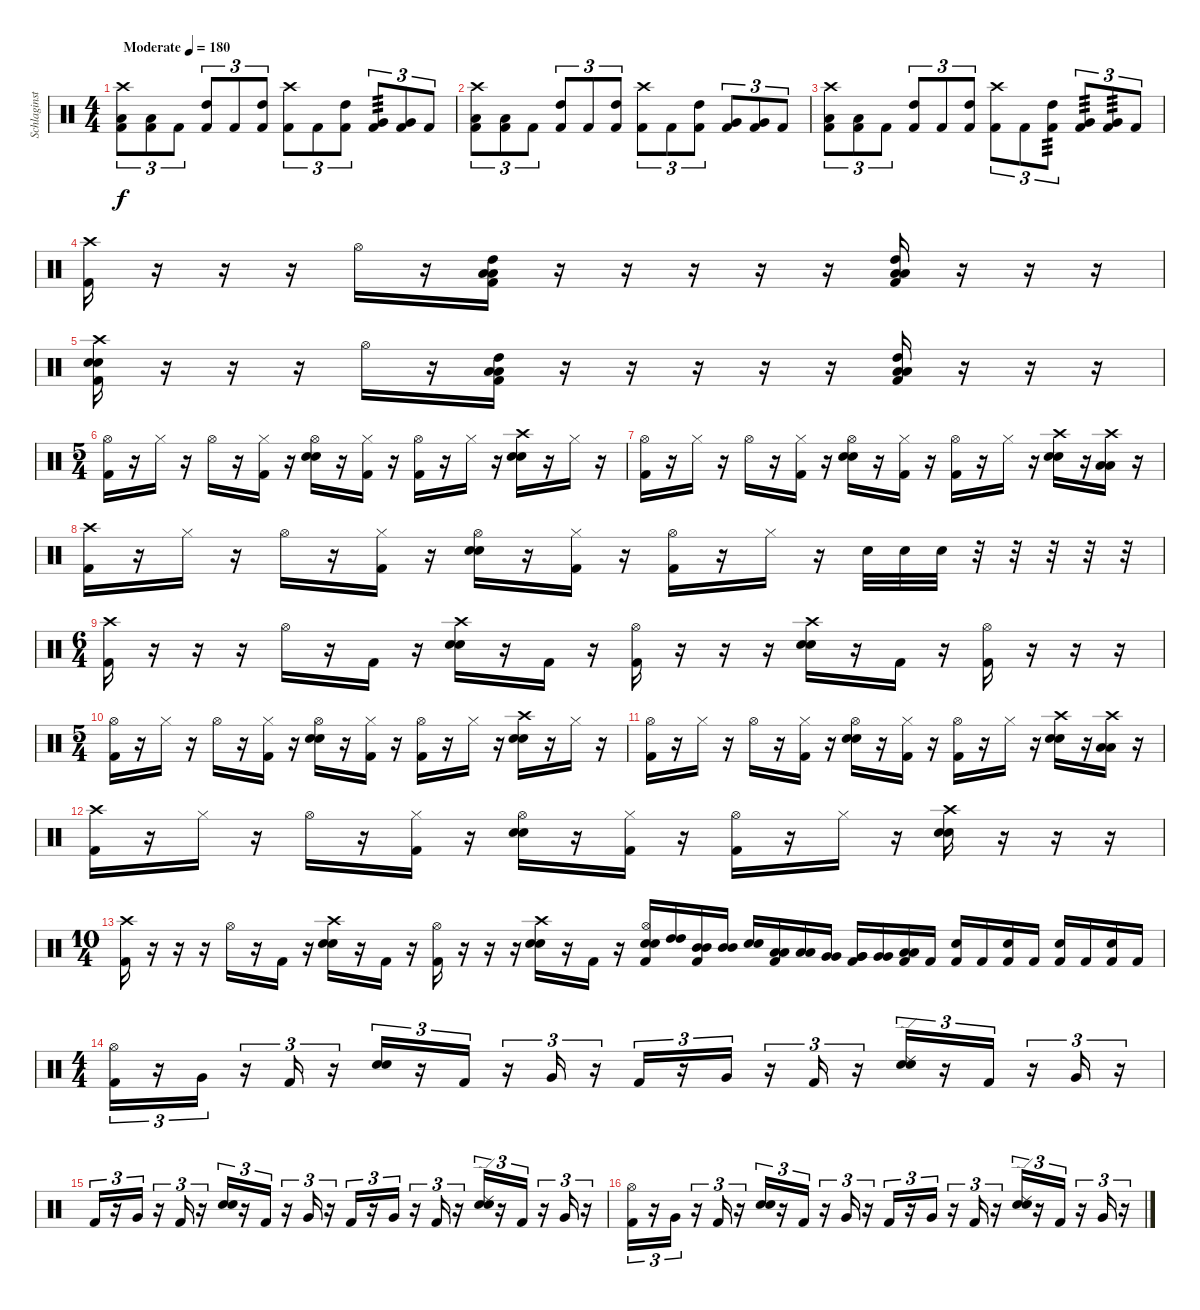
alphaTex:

\track ("Schlaginstrumente - Auswahl" "Schlaginst") {instrument percussion}
\staff {score}
\articulation defaults
\ts (4 4)
\tempo (180 "Moderate")
\clef neutral
\ks c
("Crash high (hit)" "Low Tom (hit)" "Kick (hit) 2").8{tu (3 2) dy f} ("Low Tom (hit)" "Kick (hit) 2").8{tu (3 2)} "Kick (hit) 2".8{tu (3 2)} ("High Tom (hit)" "Kick (hit) 2").8{tu (3 2)} "Kick (hit) 2".8{tu (3 2)} ("High Tom (hit)" "Kick (hit) 2").8{tu (3 2)} ("Crash high (hit)" "Kick (hit) 2").8{tu (3 2)} "Kick (hit) 2".8{tu (3 2)} ("High Tom (hit)" "Kick (hit) 2").8{tu (3 2)} ("Very Low Tom (hit)" "Kick (hit) 2").8{tu (3 2) tp 3} ("Very Low Tom (hit)" "Kick (hit) 2").8{tu (3 2)} "Kick (hit) 2".8{tu (3 2)} |
("Crash high (hit)" "Low Tom (hit)" "Kick (hit) 2").8{tu (3 2)} ("Low Tom (hit)" "Kick (hit) 2").8{tu (3 2)} "Kick (hit) 2".8{tu (3 2)} ("High Tom (hit)" "Kick (hit) 2").8{tu (3 2)} "Kick (hit) 2".8{tu (3 2)} ("High Tom (hit)" "Kick (hit) 2").8{tu (3 2)} ("Crash high (hit)" "Kick (hit) 2").8{tu (3 2)} "Kick (hit) 2".8{tu (3 2)} ("High Tom (hit)" "Kick (hit) 2").8{tu (3 2)} ("Very Low Tom (hit)" "Kick (hit) 2").8{tu (3 2)} ("Very Low Tom (hit)" "Kick (hit) 2").8{tu (3 2)} "Kick (hit) 2".8{tu (3 2)} |
("Crash high (hit)" "Low Tom (hit)" "Kick (hit) 2").8{tu (3 2)} ("Low Tom (hit)" "Kick (hit) 2").8{tu (3 2)} "Kick (hit) 2".8{tu (3 2)} ("High Tom (hit)" "Kick (hit) 2").8{tu (3 2)} "Kick (hit) 2".8{tu (3 2)} ("High Tom (hit)" "Kick (hit) 2").8{tu (3 2)} ("Crash high (hit)" "Kick (hit) 2").8{tu (3 2)} "Kick (hit) 2".8{tu (3 2)} ("High Tom (hit)" "Kick (hit) 2").8{tu (3 2) tp 3} ("Very Low Tom (hit)" "Kick (hit) 2").8{tu (3 2) tp 3} ("Very Low Tom (hit)" "Kick (hit) 2").8{tu (3 2) tp 3} "Kick (hit) 2".8{tu (3 2)} |
("Crash high (hit)" "Kick (hit) 2").16 r.16 r.16 r.16 "Hi-Hat (open)".16 r.16 ("High Tom (hit)" "Low Floor Tom (hit)" "Low Floor Tom (hit)" "Kick (hit) 2").16 r.16 r.16 r.16 r.16 r.16 ("High Tom (hit)" "Low Floor Tom (hit)" "Low Floor Tom (hit)" "Kick (hit) 2").16 r.16 r.16 r.16 |
("Crash high (hit)" "Electric Snare (hit)" "Electric Snare (hit)" "Kick (hit) 2").16 r.16 r.16 r.16 "Hi-Hat (open)".16 r.16 ("High Tom (hit)" "Low Floor Tom (hit)" "Low Floor Tom (hit)" "Kick (hit) 2").16 r.16 r.16 r.16 r.16 r.16 ("High Tom (hit)" "Low Floor Tom (hit)" "Low Floor Tom (hit)" "Kick (hit) 2").16 r.16 r.16 r.16 |
\ts (5 4)
("Hi-Hat (open)" "Kick (hit) 2").16 r.16 "Hi-Hat (closed)".16 r.16 "Hi-Hat (open)".16 r.16 ("Hi-Hat (closed)" "Kick (hit) 2").16 r.16 ("Hi-Hat (open)" "Electric Snare (hit)" "Electric Snare (hit)").16 r.16 ("Hi-Hat (closed)" "Kick (hit) 2").16 r.16 ("Hi-Hat (open)" "Kick (hit) 2").16 r.16 "Hi-Hat (closed)".16 r.16 ("Crash high (hit)" "Electric Snare (hit)" "Electric Snare (hit)").16 r.16 "Hi-Hat (closed)".16 r.16 |
("Hi-Hat (open)" "Kick (hit) 2").16 r.16 "Hi-Hat (closed)".16 r.16 "Hi-Hat (open)".16 r.16 ("Hi-Hat (closed)" "Kick (hit) 2").16 r.16 ("Hi-Hat (open)" "Electric Snare (hit)" "Electric Snare (hit)").16 r.16 ("Hi-Hat (closed)" "Kick (hit) 2").16 r.16 ("Hi-Hat (open)" "Kick (hit) 2").16 r.16 "Hi-Hat (closed)".16 r.16 ("Crash high (hit)" "Electric Snare (hit)" "Electric Snare (hit)").16 r.16 ("Crash high (hit)" "Low Floor Tom (hit)" "Low Floor Tom (hit)").16 r.16 |
("Crash high (hit)" "Kick (hit) 2").16 r.16 "Hi-Hat (closed)".16 r.16 "Hi-Hat (open)".16 r.16 ("Hi-Hat (closed)" "Kick (hit) 2").16 r.16 ("Hi-Hat (open)" "Electric Snare (hit)" "Electric Snare (hit)").16 r.16 ("Hi-Hat (closed)" "Kick (hit) 2").16 r.16 ("Hi-Hat (open)" "Kick (hit) 2").16 r.16 "Hi-Hat (closed)".16 r.16 "Electric Snare (hit)".32 "Electric Snare (hit)".32 "Electric Snare (hit)".32 r.32 r.32 r.32 r.32 r.32 |
\ts (6 4)
("Crash high (hit)" "Kick (hit) 2").16 r.16 r.16 r.16 "Hi-Hat (open)".16 r.16 "Kick (hit) 2".16 r.16 ("Crash high (hit)" "Electric Snare (hit)" "Electric Snare (hit)").16 r.16 "Kick (hit) 2".16 r.16 ("Hi-Hat (open)" "Kick (hit) 2").16 r.16 r.16 r.16 ("Crash high (hit)" "Electric Snare (hit)" "Electric Snare (hit)").16 r.16 "Kick (hit) 2".16 r.16 ("Hi-Hat (open)" "Kick (hit) 2").16 r.16 r.16 r.16 |
\ts (5 4)
("Hi-Hat (open)" "Kick (hit) 2").16 r.16 "Hi-Hat (closed)".16 r.16 "Hi-Hat (open)".16 r.16 ("Hi-Hat (closed)" "Kick (hit) 2").16 r.16 ("Hi-Hat (open)" "Electric Snare (hit)" "Electric Snare (hit)").16 r.16 ("Hi-Hat (closed)" "Kick (hit) 2").16 r.16 ("Hi-Hat (open)" "Kick (hit) 2").16 r.16 "Hi-Hat (closed)".16 r.16 ("Crash high (hit)" "Electric Snare (hit)" "Electric Snare (hit)").16 r.16 "Hi-Hat (closed)".16 r.16 |
("Hi-Hat (open)" "Kick (hit) 2").16 r.16 "Hi-Hat (closed)".16 r.16 "Hi-Hat (open)".16 r.16 ("Hi-Hat (closed)" "Kick (hit) 2").16 r.16 ("Hi-Hat (open)" "Electric Snare (hit)" "Electric Snare (hit)").16 r.16 ("Hi-Hat (closed)" "Kick (hit) 2").16 r.16 ("Hi-Hat (open)" "Kick (hit) 2").16 r.16 "Hi-Hat (closed)".16 r.16 ("Crash high (hit)" "Electric Snare (hit)" "Electric Snare (hit)").16 r.16 ("Crash high (hit)" "Low Floor Tom (hit)" "Low Floor Tom (hit)").16 r.16 |
("Crash high (hit)" "Kick (hit) 2").16 r.16 "Hi-Hat (closed)".16 r.16 "Hi-Hat (open)".16 r.16 ("Hi-Hat (closed)" "Kick (hit) 2").16 r.16 ("Hi-Hat (open)" "Electric Snare (hit)" "Electric Snare (hit)").16 r.16 ("Hi-Hat (closed)" "Kick (hit) 2").16 r.16 ("Hi-Hat (open)" "Kick (hit) 2").16 r.16 "Hi-Hat (closed)".16 r.16 ("Crash high (hit)" "Electric Snare (hit)" "Electric Snare (hit)").16 r.16 r.16 r.16 |
\ts (10 4)
("Crash high (hit)" "Kick (hit) 2").16 r.16 r.16 r.16 "Hi-Hat (open)".16 r.16 "Kick (hit) 2".16 r.16 ("Crash high (hit)" "Electric Snare (hit)" "Electric Snare (hit)").16 r.16 "Kick (hit) 2".16 r.16 ("Hi-Hat (open)" "Kick (hit) 2").16 r.16 r.16 r.16 ("Crash high (hit)" "Electric Snare (hit)" "Electric Snare (hit)").16 r.16 "Kick (hit) 2".16 r.16 ("Hi-Hat (open)" "Electric Snare (hit)" "Electric Snare (hit)" "Kick (hit) 2").16 ("High Tom (hit)" "High Tom (hit)").16 ("Mid Tom (hit)" "Mid Tom (hit)" "Kick (hit) 2").16 ("Mid Tom (hit)" "Mid Tom (hit)").16 ("Electric Snare (hit)" "Electric Snare (hit)").16 ("Low Tom (hit)" "Low Tom (hit)" "Kick (hit) 2").16 ("Low Tom (hit)" "Low Tom (hit)").16 ("Very Low Tom (hit)" "Very Low Tom (hit)").16 ("Very Low Tom (hit)" "Very Low Tom (hit)" "Kick (hit) 2").16 ("Very Low Tom (hit)" "Very Low Tom (hit)").16 ("Low Floor Tom (hit)" "Low Floor Tom (hit)" "Kick (hit) 2").16 "Kick (hit) 2".16 ("Electric Snare (hit)" "Kick (hit) 2").16 "Kick (hit) 2".16 ("Electric Snare (hit)" "Kick (hit) 2").16 "Kick (hit) 2".16 ("Electric Snare (hit)" "Kick (hit) 2").16 "Kick (hit) 2".16 ("Electric Snare (hit)" "Kick (hit) 2").16 "Kick (hit) 2".16 |
\ts (4 4)
("Hi-Hat (open)" "Kick (hit) 2").16{tu (3 2)} r.16{tu (3 2)} "Very Low Tom (hit)".16{tu (3 2)} r.16{tu (3 2)} "Kick (hit) 2".16{tu (3 2)} r.16{tu (3 2)} ("Electric Snare (hit)" "Electric Snare (hit)").16{tu (3 2)} r.16{tu (3 2)} "Kick (hit) 2".16{tu (3 2)} r.16{tu (3 2)} "Very Low Tom (hit)".16{tu (3 2)} r.16{tu (3 2)} "Kick (hit) 2".16{tu (3 2)} r.16{tu (3 2)} "Very Low Tom (hit)".16{tu (3 2)} r.16{tu (3 2)} "Kick (hit) 2".16{tu (3 2)} r.16{tu (3 2)} ("Ride (edge) 2" "Electric Snare (hit)" "Electric Snare (hit)").16{tu (3 2)} r.16{tu (3 2)} "Kick (hit) 2".16{tu (3 2)} r.16{tu (3 2)} "Very Low Tom (hit)".16{tu (3 2)} r.16{tu (3 2)} |
"Kick (hit) 2".16{tu (3 2)} r.16{tu (3 2)} "Very Low Tom (hit)".16{tu (3 2)} r.16{tu (3 2)} "Kick (hit) 2".16{tu (3 2)} r.16{tu (3 2)} ("Electric Snare (hit)" "Electric Snare (hit)").16{tu (3 2)} r.16{tu (3 2)} "Kick (hit) 2".16{tu (3 2)} r.16{tu (3 2)} "Very Low Tom (hit)".16{tu (3 2)} r.16{tu (3 2)} "Kick (hit) 2".16{tu (3 2)} r.16{tu (3 2)} "Very Low Tom (hit)".16{tu (3 2)} r.16{tu (3 2)} "Kick (hit) 2".16{tu (3 2)} r.16{tu (3 2)} ("Ride (edge) 2" "Electric Snare (hit)" "Electric Snare (hit)").16{tu (3 2)} r.16{tu (3 2)} "Kick (hit) 2".16{tu (3 2)} r.16{tu (3 2)} "Very Low Tom (hit)".16{tu (3 2)} r.16{tu (3 2)} |
("Hi-Hat (open)" "Kick (hit) 2").16{tu (3 2)} r.16{tu (3 2)} "Very Low Tom (hit)".16{tu (3 2)} r.16{tu (3 2)} "Kick (hit) 2".16{tu (3 2)} r.16{tu (3 2)} ("Electric Snare (hit)" "Electric Snare (hit)").16{tu (3 2)} r.16{tu (3 2)} "Kick (hit) 2".16{tu (3 2)} r.16{tu (3 2)} "Very Low Tom (hit)".16{tu (3 2)} r.16{tu (3 2)} "Kick (hit) 2".16{tu (3 2)} r.16{tu (3 2)} "Very Low Tom (hit)".16{tu (3 2)} r.16{tu (3 2)} "Kick (hit) 2".16{tu (3 2)} r.16{tu (3 2)} ("Ride (edge) 2" "Electric Snare (hit)" "Electric Snare (hit)").16{tu (3 2)} r.16{tu (3 2)} "Kick (hit) 2".16{tu (3 2)} r.16{tu (3 2)} "Very Low Tom (hit)".16{tu (3 2)} r.16{tu (3 2)}
